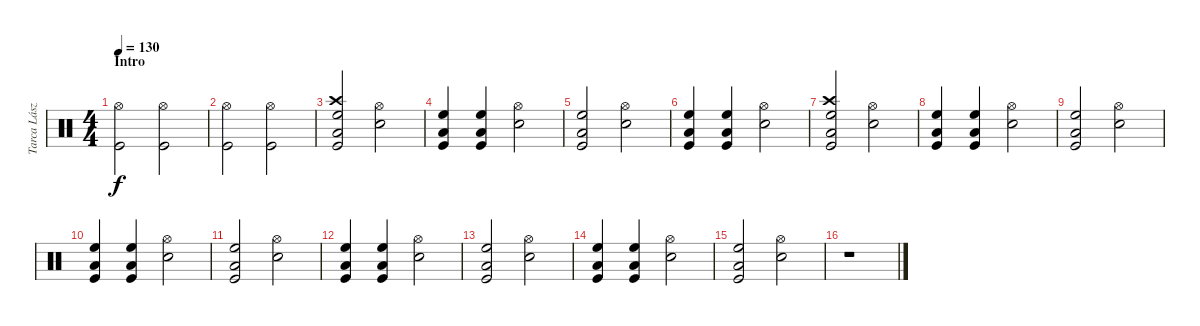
\track ("Tarca László" "Tarca Lász") {instrument percussion}
\staff {score}
\articulation defaults
\ts (4 4)
\section ("" "Intro")
\tempo 130
\clef neutral
\ks c
("Kick (hit)" "Hi-Hat (open)").2{dy f} ("Kick (hit)" "Hi-Hat (open)").2 |
("Kick (hit)" "Hi-Hat (open)").2 ("Kick (hit)" "Hi-Hat (open)").2 |
("Crash high (hit)" "High Floor Tom (hit)" "Low Tom (hit)" "Kick (hit)").2 ("Snare (hit) 2" "Hi-Hat (open)").2 |
("High Floor Tom (hit)" "Low Tom (hit)" "Kick (hit)").4 ("High Floor Tom (hit)" "Low Tom (hit)" "Kick (hit)").4 ("Snare (hit) 2" "Hi-Hat (open)").2 |
("High Floor Tom (hit)" "Low Tom (hit)" "Kick (hit)").2 ("Snare (hit) 2" "Hi-Hat (open)").2 |
("High Floor Tom (hit)" "Low Tom (hit)" "Kick (hit)").4 ("High Floor Tom (hit)" "Low Tom (hit)" "Kick (hit)").4 ("Snare (hit) 2" "Hi-Hat (open)").2 |
("Crash high (hit)" "High Floor Tom (hit)" "Low Tom (hit)" "Kick (hit)").2 ("Snare (hit) 2" "Hi-Hat (open)").2 |
("High Floor Tom (hit)" "Low Tom (hit)" "Kick (hit)").4 ("High Floor Tom (hit)" "Low Tom (hit)" "Kick (hit)").4 ("Snare (hit) 2" "Hi-Hat (open)").2 |
("High Floor Tom (hit)" "Low Tom (hit)" "Kick (hit)").2 ("Snare (hit) 2" "Hi-Hat (open)").2 |
("High Floor Tom (hit)" "Low Tom (hit)" "Kick (hit)").4 ("High Floor Tom (hit)" "Low Tom (hit)" "Kick (hit)").4 ("Snare (hit) 2" "Hi-Hat (open)").2 |
("High Floor Tom (hit)" "Low Tom (hit)" "Kick (hit)").2 ("Snare (hit) 2" "Hi-Hat (open)").2 |
("High Floor Tom (hit)" "Low Tom (hit)" "Kick (hit)").4 ("High Floor Tom (hit)" "Low Tom (hit)" "Kick (hit)").4 ("Snare (hit) 2" "Hi-Hat (open)").2 |
("High Floor Tom (hit)" "Low Tom (hit)" "Kick (hit)").2 ("Snare (hit) 2" "Hi-Hat (open)").2 |
("High Floor Tom (hit)" "Low Tom (hit)" "Kick (hit)").4 ("High Floor Tom (hit)" "Low Tom (hit)" "Kick (hit)").4 ("Snare (hit) 2" "Hi-Hat (open)").2 |
("High Floor Tom (hit)" "Low Tom (hit)" "Kick (hit)").2 ("Snare (hit) 2" "Hi-Hat (open)").2 |
r.1
